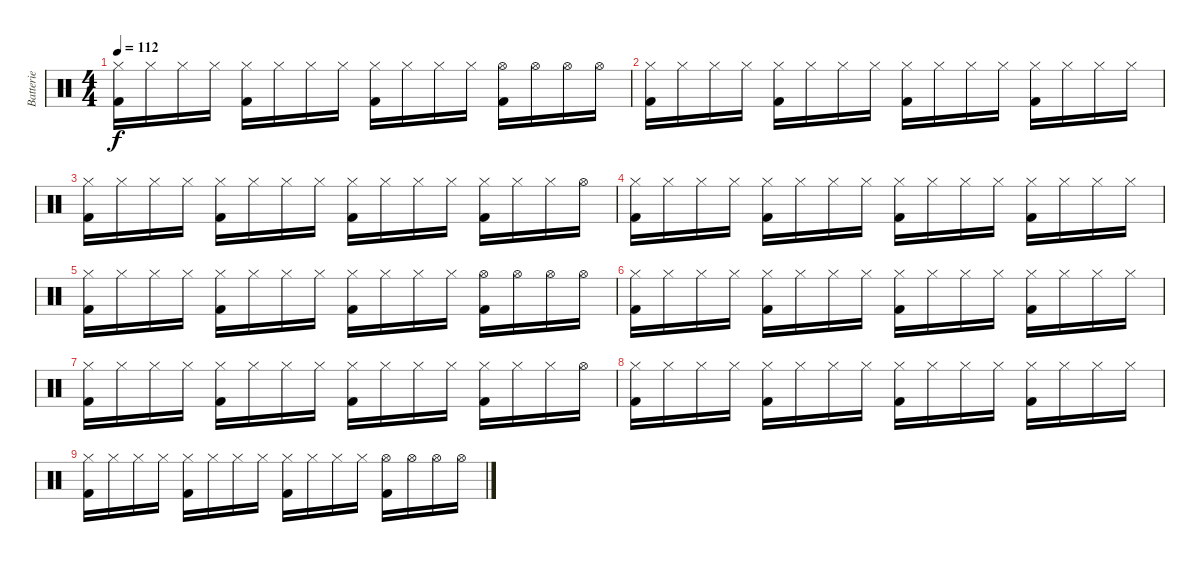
\track ("Batterie" "Batterie") {instrument percussion}
\staff {score}
\articulation defaults
\ts (4 4)
\tempo 112
\clef neutral
\ks c
("Kick (hit) 2" "Hi-Hat (closed)").16{dy f} "Hi-Hat (closed)".16 "Hi-Hat (closed)".16 "Hi-Hat (closed)".16 ("Kick (hit) 2" "Hi-Hat (closed)").16 "Hi-Hat (closed)".16 "Hi-Hat (closed)".16 "Hi-Hat (closed)".16 ("Kick (hit) 2" "Hi-Hat (closed)").16 "Hi-Hat (closed)".16 "Hi-Hat (closed)".16 "Hi-Hat (closed)".16 ("Kick (hit) 2" "Hi-Hat (open)").16 "Hi-Hat (open)".16 "Hi-Hat (open)".16 "Hi-Hat (open)".16 |
("Kick (hit) 2" "Hi-Hat (closed)").16 "Hi-Hat (closed)".16 "Hi-Hat (closed)".16 "Hi-Hat (closed)".16 ("Kick (hit) 2" "Hi-Hat (closed)").16 "Hi-Hat (closed)".16 "Hi-Hat (closed)".16 "Hi-Hat (closed)".16 ("Kick (hit) 2" "Hi-Hat (closed)").16 "Hi-Hat (closed)".16 "Hi-Hat (closed)".16 "Hi-Hat (closed)".16 ("Kick (hit) 2" "Hi-Hat (closed)").16 "Hi-Hat (closed)".16 "Hi-Hat (closed)".16 "Hi-Hat (closed)".16 |
("Kick (hit) 2" "Hi-Hat (closed)").16 "Hi-Hat (closed)".16 "Hi-Hat (closed)".16 "Hi-Hat (closed)".16 ("Kick (hit) 2" "Hi-Hat (closed)").16 "Hi-Hat (closed)".16 "Hi-Hat (closed)".16 "Hi-Hat (closed)".16 ("Kick (hit) 2" "Hi-Hat (closed)").16 "Hi-Hat (closed)".16 "Hi-Hat (closed)".16 "Hi-Hat (closed)".16 ("Kick (hit) 2" "Hi-Hat (closed)").16 "Hi-Hat (closed)".16 "Hi-Hat (closed)".16 "Hi-Hat (open)".16 |
("Kick (hit) 2" "Hi-Hat (closed)").16 "Hi-Hat (closed)".16 "Hi-Hat (closed)".16 "Hi-Hat (closed)".16 ("Kick (hit) 2" "Hi-Hat (closed)").16 "Hi-Hat (closed)".16 "Hi-Hat (closed)".16 "Hi-Hat (closed)".16 ("Kick (hit) 2" "Hi-Hat (closed)").16 "Hi-Hat (closed)".16 "Hi-Hat (closed)".16 "Hi-Hat (closed)".16 ("Kick (hit) 2" "Hi-Hat (closed)").16 "Hi-Hat (closed)".16 "Hi-Hat (closed)".16 "Hi-Hat (closed)".16 |
("Kick (hit) 2" "Hi-Hat (closed)").16 "Hi-Hat (closed)".16 "Hi-Hat (closed)".16 "Hi-Hat (closed)".16 ("Kick (hit) 2" "Hi-Hat (closed)").16 "Hi-Hat (closed)".16 "Hi-Hat (closed)".16 "Hi-Hat (closed)".16 ("Kick (hit) 2" "Hi-Hat (closed)").16 "Hi-Hat (closed)".16 "Hi-Hat (closed)".16 "Hi-Hat (closed)".16 ("Kick (hit) 2" "Hi-Hat (open)").16 "Hi-Hat (open)".16 "Hi-Hat (open)".16 "Hi-Hat (open)".16 |
("Kick (hit) 2" "Hi-Hat (closed)").16 "Hi-Hat (closed)".16 "Hi-Hat (closed)".16 "Hi-Hat (closed)".16 ("Kick (hit) 2" "Hi-Hat (closed)").16 "Hi-Hat (closed)".16 "Hi-Hat (closed)".16 "Hi-Hat (closed)".16 ("Kick (hit) 2" "Hi-Hat (closed)").16 "Hi-Hat (closed)".16 "Hi-Hat (closed)".16 "Hi-Hat (closed)".16 ("Kick (hit) 2" "Hi-Hat (closed)").16 "Hi-Hat (closed)".16 "Hi-Hat (closed)".16 "Hi-Hat (closed)".16 |
("Kick (hit) 2" "Hi-Hat (closed)").16 "Hi-Hat (closed)".16 "Hi-Hat (closed)".16 "Hi-Hat (closed)".16 ("Kick (hit) 2" "Hi-Hat (closed)").16 "Hi-Hat (closed)".16 "Hi-Hat (closed)".16 "Hi-Hat (closed)".16 ("Kick (hit) 2" "Hi-Hat (closed)").16 "Hi-Hat (closed)".16 "Hi-Hat (closed)".16 "Hi-Hat (closed)".16 ("Kick (hit) 2" "Hi-Hat (closed)").16 "Hi-Hat (closed)".16 "Hi-Hat (closed)".16 "Hi-Hat (open)".16 |
("Kick (hit) 2" "Hi-Hat (closed)").16 "Hi-Hat (closed)".16 "Hi-Hat (closed)".16 "Hi-Hat (closed)".16 ("Kick (hit) 2" "Hi-Hat (closed)").16 "Hi-Hat (closed)".16 "Hi-Hat (closed)".16 "Hi-Hat (closed)".16 ("Kick (hit) 2" "Hi-Hat (closed)").16 "Hi-Hat (closed)".16 "Hi-Hat (closed)".16 "Hi-Hat (closed)".16 ("Kick (hit) 2" "Hi-Hat (closed)").16 "Hi-Hat (closed)".16 "Hi-Hat (closed)".16 "Hi-Hat (closed)".16 |
("Kick (hit) 2" "Hi-Hat (closed)").16 "Hi-Hat (closed)".16 "Hi-Hat (closed)".16 "Hi-Hat (closed)".16 ("Kick (hit) 2" "Hi-Hat (closed)").16 "Hi-Hat (closed)".16 "Hi-Hat (closed)".16 "Hi-Hat (closed)".16 ("Kick (hit) 2" "Hi-Hat (closed)").16 "Hi-Hat (closed)".16 "Hi-Hat (closed)".16 "Hi-Hat (closed)".16 ("Kick (hit) 2" "Hi-Hat (open)").16 "Hi-Hat (open)".16 "Hi-Hat (open)".16 "Hi-Hat (open)".16
